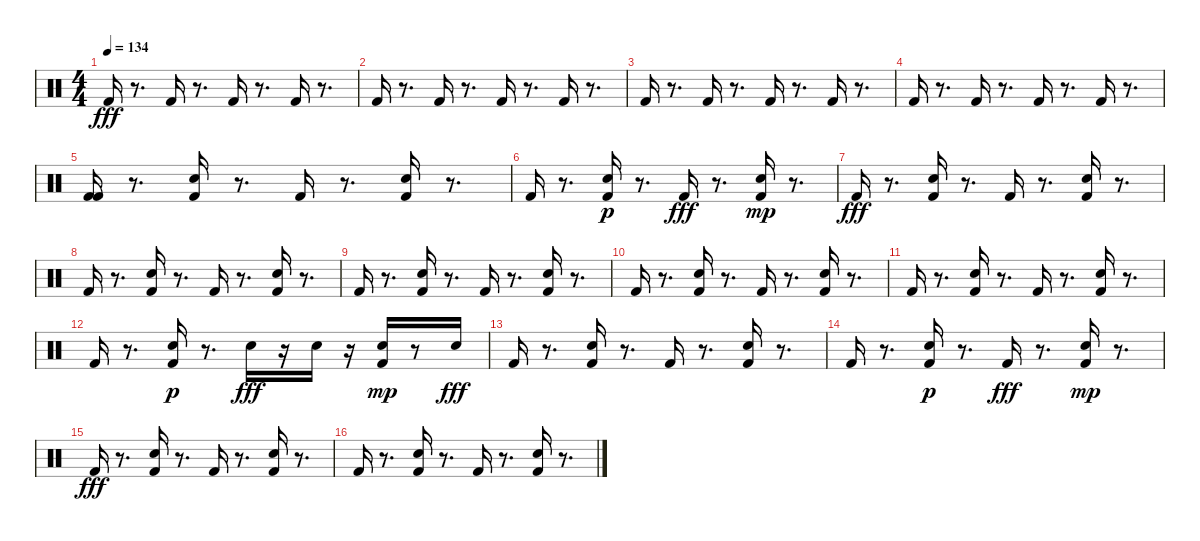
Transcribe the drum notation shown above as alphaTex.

\track "" {instrument percussion}
\staff {score}
\articulation defaults
\ts (4 4)
\tempo 134
\clef neutral
\ks c "Kick (hit) 2".16{dy fff}
r.8{d} "Kick (hit) 2".16 r.8{d} "Kick (hit) 2".16 r.8{d} "Kick (hit) 2".16 r.8{d} |
"Kick (hit) 2".16 r.8{d} "Kick (hit) 2".16 r.8{d} "Kick (hit) 2".16 r.8{d} "Kick (hit) 2".16 r.8{d} |
"Kick (hit) 2".16 r.8{d} "Kick (hit) 2".16 r.8{d} "Kick (hit) 2".16 r.8{d} "Kick (hit) 2".16 r.8{d} |
"Kick (hit) 2".16 r.8{d} "Kick (hit) 2".16 r.8{d} "Kick (hit) 2".16 r.8{d} "Kick (hit) 2".16 r.8{d} |
("Kick (hit) 2" "Kick (hit) 2").16 r.8{d} ("Kick (hit) 2" "Snare (hit) 2").16 r.8{d} "Kick (hit) 2".16 r.8{d} ("Kick (hit) 2" "Snare (hit) 2").16 r.8{d} |
"Kick (hit) 2".16 r.8{d} ("Snare (hit) 2" "Kick (hit) 2").16{dy p} r.8{d} "Kick (hit) 2".16{dy fff} r.8{d} ("Snare (hit) 2" "Kick (hit) 2").16{dy mp} r.8{d} |
"Kick (hit) 2".16{dy fff} r.8{d} ("Kick (hit) 2" "Snare (hit) 2").16 r.8{d} "Kick (hit) 2".16 r.8{d} ("Kick (hit) 2" "Snare (hit) 2").16 r.8{d} |
"Kick (hit) 2".16 r.8{d} ("Kick (hit) 2" "Snare (hit) 2").16 r.8{d} "Kick (hit) 2".16 r.8{d} ("Kick (hit) 2" "Snare (hit) 2").16 r.8{d} |
"Kick (hit) 2".16 r.8{d} ("Kick (hit) 2" "Snare (hit) 2").16 r.8{d} "Kick (hit) 2".16 r.8{d} ("Kick (hit) 2" "Snare (hit) 2").16 r.8{d} |
"Kick (hit) 2".16 r.8{d} ("Kick (hit) 2" "Snare (hit) 2").16 r.8{d} "Kick (hit) 2".16 r.8{d} ("Kick (hit) 2" "Snare (hit) 2").16 r.8{d} |
"Kick (hit) 2".16 r.8{d} ("Kick (hit) 2" "Snare (hit) 2").16 r.8{d} "Kick (hit) 2".16 r.8{d} ("Kick (hit) 2" "Snare (hit) 2").16 r.8{d} |
"Kick (hit) 2".16 r.8{d} ("Snare (hit) 2" "Kick (hit) 2").16{dy p} r.8{d} "Snare (hit) 2".16{dy fff} r.16 "Snare (hit) 2".16 r.16 ("Snare (hit) 2" "Kick (hit) 2").16{dy mp} r.8 "Snare (hit) 2".16{dy fff} |
"Kick (hit) 2".16 r.8{d} ("Kick (hit) 2" "Snare (hit) 2").16 r.8{d} "Kick (hit) 2".16 r.8{d} ("Kick (hit) 2" "Snare (hit) 2").16 r.8{d} |
"Kick (hit) 2".16 r.8{d} ("Snare (hit) 2" "Kick (hit) 2").16{dy p} r.8{d} "Kick (hit) 2".16{dy fff} r.8{d} ("Snare (hit) 2" "Kick (hit) 2").16{dy mp} r.8{d} |
"Kick (hit) 2".16{dy fff} r.8{d} ("Kick (hit) 2" "Snare (hit) 2").16 r.8{d} "Kick (hit) 2".16 r.8{d} ("Kick (hit) 2" "Snare (hit) 2").16 r.8{d} |
"Kick (hit) 2".16 r.8{d} ("Kick (hit) 2" "Snare (hit) 2").16 r.8{d} "Kick (hit) 2".16 r.8{d} ("Kick (hit) 2" "Snare (hit) 2").16 r.8{d}
